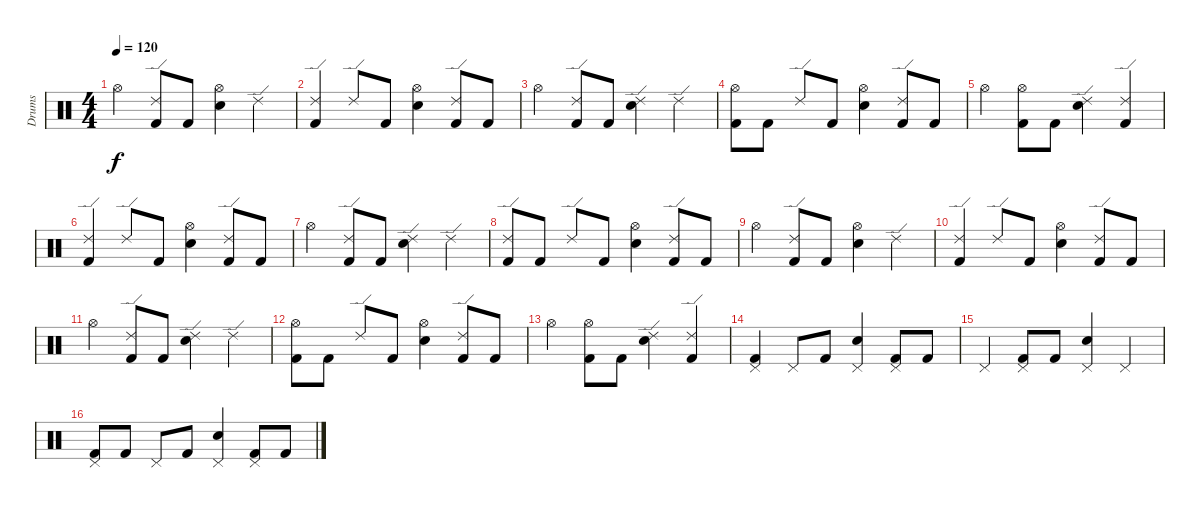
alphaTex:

\track ("Drums" "Drums") {instrument percussion}
\staff {score}
\articulation defaults
\ts (4 4)
\tempo 120
\clef neutral
\ks c "Hi-Hat (open)".4{dy f}
("Ride (edge) 2" "Kick (hit) 2").8 "Kick (hit) 2".8 ("Hi-Hat (open)" "Snare (hit) 2").4 "Ride (edge) 2".4 |
("Ride (edge) 2" "Kick (hit) 2").4 "Ride (edge) 2".8 "Kick (hit) 2".8 ("Hi-Hat (open)" "Snare (hit) 2").4 ("Ride (edge) 2" "Kick (hit) 2").8 "Kick (hit) 2".8 |
"Hi-Hat (open)".4 ("Ride (edge) 2" "Kick (hit) 2").8 "Kick (hit) 2".8 ("Ride (edge) 2" "Snare (hit) 2").4 "Ride (edge) 2".4 |
("Hi-Hat (open)" "Kick (hit) 2").8 "Kick (hit) 2".8 "Ride (edge) 2".8 "Kick (hit) 2".8 ("Hi-Hat (open)" "Snare (hit) 2").4 ("Ride (edge) 2" "Kick (hit) 2").8 "Kick (hit) 2".8 |
"Hi-Hat (open)".4 ("Hi-Hat (open)" "Kick (hit) 2").8 "Kick (hit) 2".8 ("Ride (edge) 2" "Snare (hit) 2").4 ("Ride (edge) 2" "Kick (hit) 2").4 |
("Ride (edge) 2" "Kick (hit) 2").4 "Ride (edge) 2".8 "Kick (hit) 2".8 ("Hi-Hat (open)" "Snare (hit) 2").4 ("Ride (edge) 2" "Kick (hit) 2").8 "Kick (hit) 2".8 |
"Hi-Hat (open)".4 ("Ride (edge) 2" "Kick (hit) 2").8 "Kick (hit) 2".8 ("Ride (edge) 2" "Snare (hit) 2").4 "Ride (edge) 2".4 |
("Ride (edge) 2" "Kick (hit) 2").8 "Kick (hit) 2".8 "Ride (edge) 2".8 "Kick (hit) 2".8 ("Hi-Hat (open)" "Snare (hit) 2").4 ("Ride (edge) 2" "Kick (hit) 2").8 "Kick (hit) 2".8 |
"Hi-Hat (open)".4 ("Ride (edge) 2" "Kick (hit) 2").8 "Kick (hit) 2".8 ("Hi-Hat (open)" "Snare (hit) 2").4 "Ride (edge) 2".4 |
("Ride (edge) 2" "Kick (hit) 2").4 "Ride (edge) 2".8 "Kick (hit) 2".8 ("Hi-Hat (open)" "Snare (hit) 2").4 ("Ride (edge) 2" "Kick (hit) 2").8 "Kick (hit) 2".8 |
"Hi-Hat (open)".4 ("Ride (edge) 2" "Kick (hit) 2").8 "Kick (hit) 2".8 ("Ride (edge) 2" "Snare (hit) 2").4 "Ride (edge) 2".4 |
("Hi-Hat (open)" "Kick (hit) 2").8 "Kick (hit) 2".8 "Ride (edge) 2".8 "Kick (hit) 2".8 ("Hi-Hat (open)" "Snare (hit) 2").4 ("Ride (edge) 2" "Kick (hit) 2").8 "Kick (hit) 2".8 |
"Hi-Hat (open)".4 ("Hi-Hat (open)" "Kick (hit) 2").8 "Kick (hit) 2".8 ("Ride (edge) 2" "Snare (hit) 2").4 ("Ride (edge) 2" "Kick (hit) 2").4 |
("Pedal Hi-Hat (hit)" "Kick (hit) 2").4 "Pedal Hi-Hat (hit)".8 "Kick (hit) 2".8 ("Pedal Hi-Hat (hit)" "Snare (hit) 2").4 ("Pedal Hi-Hat (hit)" "Kick (hit) 2").8 "Kick (hit) 2".8 |
"Pedal Hi-Hat (hit)".4 ("Pedal Hi-Hat (hit)" "Kick (hit) 2").8 "Kick (hit) 2".8 ("Pedal Hi-Hat (hit)" "Snare (hit) 2").4 "Pedal Hi-Hat (hit)".4 |
("Pedal Hi-Hat (hit)" "Kick (hit) 2").8 "Kick (hit) 2".8 "Pedal Hi-Hat (hit)".8 "Kick (hit) 2".8 ("Pedal Hi-Hat (hit)" "Snare (hit) 2").4 ("Pedal Hi-Hat (hit)" "Kick (hit) 2").8 "Kick (hit) 2".8
